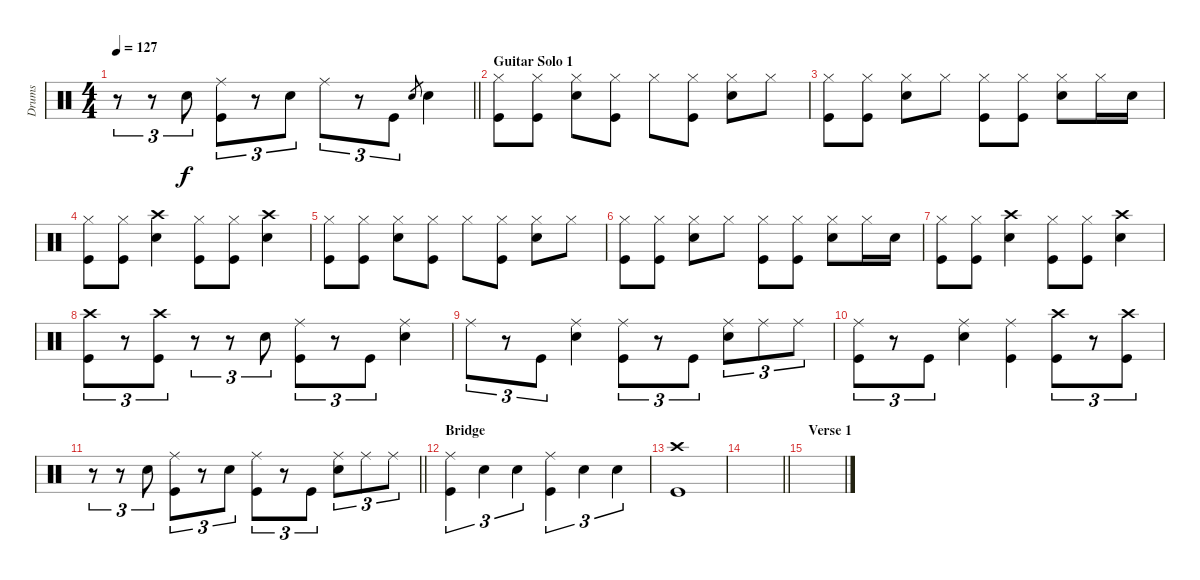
\track ("Drums" "Drums") {instrument percussion}
\staff {score}
\articulation defaults
\ts (4 4)
\tempo 127
\clef neutral
\barLineRight lightlight
\ks c
r.8{tu (3 2) dy f} r.8{tu (3 2)} "Snare (hit) 2".8{tu (3 2)} ("Ride (middle)" "Kick (hit)").8{tu (3 2)} r.8{tu (3 2)} "Snare (hit) 2".8{tu (3 2)} "Ride (middle)".8{tu (3 2)} r.8{tu (3 2)} "Kick (hit)".8{tu (3 2)} "Snare (hit) 2".8{gr} "Snare (hit) 2".4 |
\section ("" "Guitar Solo 1")
("Hi-Hat (closed)" "Kick (hit)").8 ("Hi-Hat (closed)" "Kick (hit)").8 ("Hi-Hat (closed)" "Snare (hit) 2").8 ("Hi-Hat (closed)" "Kick (hit)").8 "Hi-Hat (closed)".8 ("Hi-Hat (closed)" "Kick (hit)").8 ("Hi-Hat (closed)" "Snare (hit) 2").8 "Hi-Hat (closed)".8 |
("Hi-Hat (closed)" "Kick (hit)").8 ("Hi-Hat (closed)" "Kick (hit)").8 ("Hi-Hat (closed)" "Snare (hit) 2").8 "Hi-Hat (closed)".8 ("Hi-Hat (closed)" "Kick (hit)").8 ("Hi-Hat (closed)" "Kick (hit)").8 ("Hi-Hat (closed)" "Snare (hit) 2").8 "Hi-Hat (closed)".16 "Snare (hit) 2".16 |
("Hi-Hat (closed)" "Kick (hit)").8 ("Hi-Hat (closed)" "Kick (hit)").8 ("Crash high (hit)" "Snare (hit) 2").4 ("Hi-Hat (closed)" "Kick (hit)").8 ("Hi-Hat (closed)" "Kick (hit)").8 ("Crash high (hit)" "Snare (hit) 2").4 |
("Hi-Hat (closed)" "Kick (hit)").8 ("Hi-Hat (closed)" "Kick (hit)").8 ("Hi-Hat (closed)" "Snare (hit) 2").8 ("Hi-Hat (closed)" "Kick (hit)").8 "Hi-Hat (closed)".8 ("Hi-Hat (closed)" "Kick (hit)").8 ("Hi-Hat (closed)" "Snare (hit) 2").8 "Hi-Hat (closed)".8 |
("Hi-Hat (closed)" "Kick (hit)").8 ("Hi-Hat (closed)" "Kick (hit)").8 ("Hi-Hat (closed)" "Snare (hit) 2").8 "Hi-Hat (closed)".8 ("Hi-Hat (closed)" "Kick (hit)").8 ("Hi-Hat (closed)" "Kick (hit)").8 ("Hi-Hat (closed)" "Snare (hit) 2").8 "Hi-Hat (closed)".16 "Snare (hit) 2".16 |
("Hi-Hat (closed)" "Kick (hit)").8 ("Hi-Hat (closed)" "Kick (hit)").8 ("Crash high (hit)" "Snare (hit) 2").4 ("Hi-Hat (closed)" "Kick (hit)").8 ("Hi-Hat (closed)" "Kick (hit)").8 ("Crash high (hit)" "Snare (hit) 2").4 |
("Crash high (hit)" "Kick (hit)").8{tu (3 2)} r.8{tu (3 2)} ("Kick (hit)" "Crash high (hit)").8{tu (3 2)} r.8{tu (3 2)} r.8{tu (3 2)} "Snare (hit) 2".8{tu (3 2)} ("Ride (middle)" "Kick (hit)").8{tu (3 2)} r.8{tu (3 2)} "Kick (hit)".8{tu (3 2)} ("Snare (hit) 2" "Ride (middle)").4 |
"Ride (middle)".8{tu (3 2)} r.8{tu (3 2)} "Kick (hit)".8{tu (3 2)} ("Snare (hit) 2" "Ride (middle)").4 ("Kick (hit)" "Ride (middle)").8{tu (3 2)} r.8{tu (3 2)} "Kick (hit)".8{tu (3 2)} ("Snare (hit) 2" "Ride (middle)").8{tu (3 2)} "Ride (middle)".8{tu (3 2)} "Ride (middle)".8{tu (3 2)} |
("Ride (middle)" "Kick (hit)").8{tu (3 2)} r.8{tu (3 2)} "Kick (hit)".8{tu (3 2)} ("Ride (middle)" "Snare (hit) 2").4 ("Kick (hit)" "Ride (middle)").4 ("Kick (hit)" "Crash high (hit)").8{tu (3 2)} r.8{tu (3 2)} ("Crash high (hit)" "Kick (hit)").8{tu (3 2)} |
\barLineRight lightlight
r.8{tu (3 2)} r.8{tu (3 2)} "Snare (hit) 2".8{tu (3 2)} ("Ride (middle)" "Kick (hit)").8{tu (3 2)} r.8{tu (3 2)} "Snare (hit) 2".8{tu (3 2)} ("Kick (hit)" "Ride (middle)").8{tu (3 2)} r.8{tu (3 2)} "Kick (hit)".8{tu (3 2)} ("Snare (hit) 2" "Ride (middle)").8{tu (3 2)} "Ride (middle)".8{tu (3 2)} "Ride (middle)".8{tu (3 2)} |
\section ("" "Bridge")
("Ride (middle)" "Kick (hit)").4{tu (3 2)} "Snare (hit) 2".4{tu (3 2)} "Snare (hit) 2".4{tu (3 2)} ("Kick (hit)" "Ride (middle)").4{tu (3 2)} "Snare (hit) 2".4{tu (3 2)} "Snare (hit) 2".4{tu (3 2)} |
("Crash high (hit)" "Kick (hit)").1 |
\barLineRight lightlight
|
\section ("" "Verse 1")
